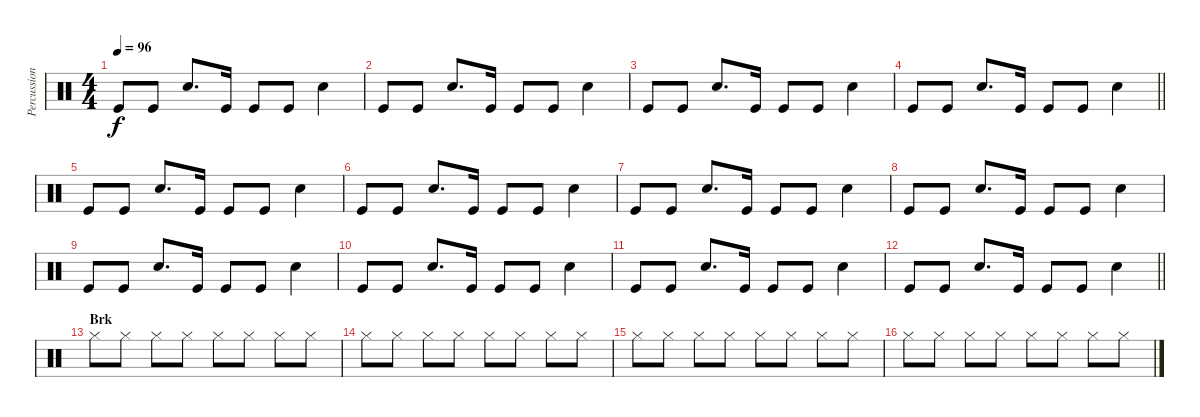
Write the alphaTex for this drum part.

\track ("Percussion" "Percussion") {instrument percussion}
\staff {score}
\articulation defaults
\ts (4 4)
\tempo 96
\clef neutral
\ks c "Kick (hit)".8{dy f} "Kick (hit)".8 "Electric Snare (hit)".8{d} "Kick (hit)".16 "Kick (hit)".8 "Kick (hit)".8 "Electric Snare (hit)".4
|
"Kick (hit)".8 "Kick (hit)".8 "Electric Snare (hit)".8{d} "Kick (hit)".16 "Kick (hit)".8 "Kick (hit)".8 "Electric Snare (hit)".4 |
"Kick (hit)".8 "Kick (hit)".8 "Electric Snare (hit)".8{d} "Kick (hit)".16 "Kick (hit)".8 "Kick (hit)".8 "Electric Snare (hit)".4 |
\barLineRight lightlight "Kick (hit)".8 "Kick (hit)".8 "Electric Snare (hit)".8{d} "Kick (hit)".16 "Kick (hit)".8 "Kick (hit)".8 "Electric Snare (hit)".4
|
"Kick (hit)".8 "Kick (hit)".8 "Electric Snare (hit)".8{d} "Kick (hit)".16 "Kick (hit)".8 "Kick (hit)".8 "Electric Snare (hit)".4 |
"Kick (hit)".8 "Kick (hit)".8 "Electric Snare (hit)".8{d} "Kick (hit)".16 "Kick (hit)".8 "Kick (hit)".8 "Electric Snare (hit)".4 |
"Kick (hit)".8 "Kick (hit)".8 "Electric Snare (hit)".8{d} "Kick (hit)".16 "Kick (hit)".8 "Kick (hit)".8 "Electric Snare (hit)".4 |
"Kick (hit)".8 "Kick (hit)".8 "Electric Snare (hit)".8{d} "Kick (hit)".16 "Kick (hit)".8 "Kick (hit)".8 "Electric Snare (hit)".4 |
"Kick (hit)".8 "Kick (hit)".8 "Electric Snare (hit)".8{d} "Kick (hit)".16 "Kick (hit)".8 "Kick (hit)".8 "Electric Snare (hit)".4 |
"Kick (hit)".8 "Kick (hit)".8 "Electric Snare (hit)".8{d} "Kick (hit)".16 "Kick (hit)".8 "Kick (hit)".8 "Electric Snare (hit)".4 |
"Kick (hit)".8 "Kick (hit)".8 "Electric Snare (hit)".8{d} "Kick (hit)".16 "Kick (hit)".8 "Kick (hit)".8 "Electric Snare (hit)".4 |
\barLineRight lightlight "Kick (hit)".8 "Kick (hit)".8 "Electric Snare (hit)".8{d} "Kick (hit)".16 "Kick (hit)".8 "Kick (hit)".8 "Electric Snare (hit)".4
|
\section ("" "Brk")
"Hi-Hat (closed)".8 "Hi-Hat (closed)".8 "Hi-Hat (closed)".8 "Hi-Hat (closed)".8 "Hi-Hat (closed)".8 "Hi-Hat (closed)".8 "Hi-Hat (closed)".8 "Hi-Hat (closed)".8 |
"Hi-Hat (closed)".8 "Hi-Hat (closed)".8 "Hi-Hat (closed)".8 "Hi-Hat (closed)".8 "Hi-Hat (closed)".8 "Hi-Hat (closed)".8 "Hi-Hat (closed)".8 "Hi-Hat (closed)".8 |
"Hi-Hat (closed)".8 "Hi-Hat (closed)".8 "Hi-Hat (closed)".8 "Hi-Hat (closed)".8 "Hi-Hat (closed)".8 "Hi-Hat (closed)".8 "Hi-Hat (closed)".8 "Hi-Hat (closed)".8 |
"Hi-Hat (closed)".8 "Hi-Hat (closed)".8 "Hi-Hat (closed)".8 "Hi-Hat (closed)".8 "Hi-Hat (closed)".8 "Hi-Hat (closed)".8 "Hi-Hat (closed)".8 "Hi-Hat (closed)".8
